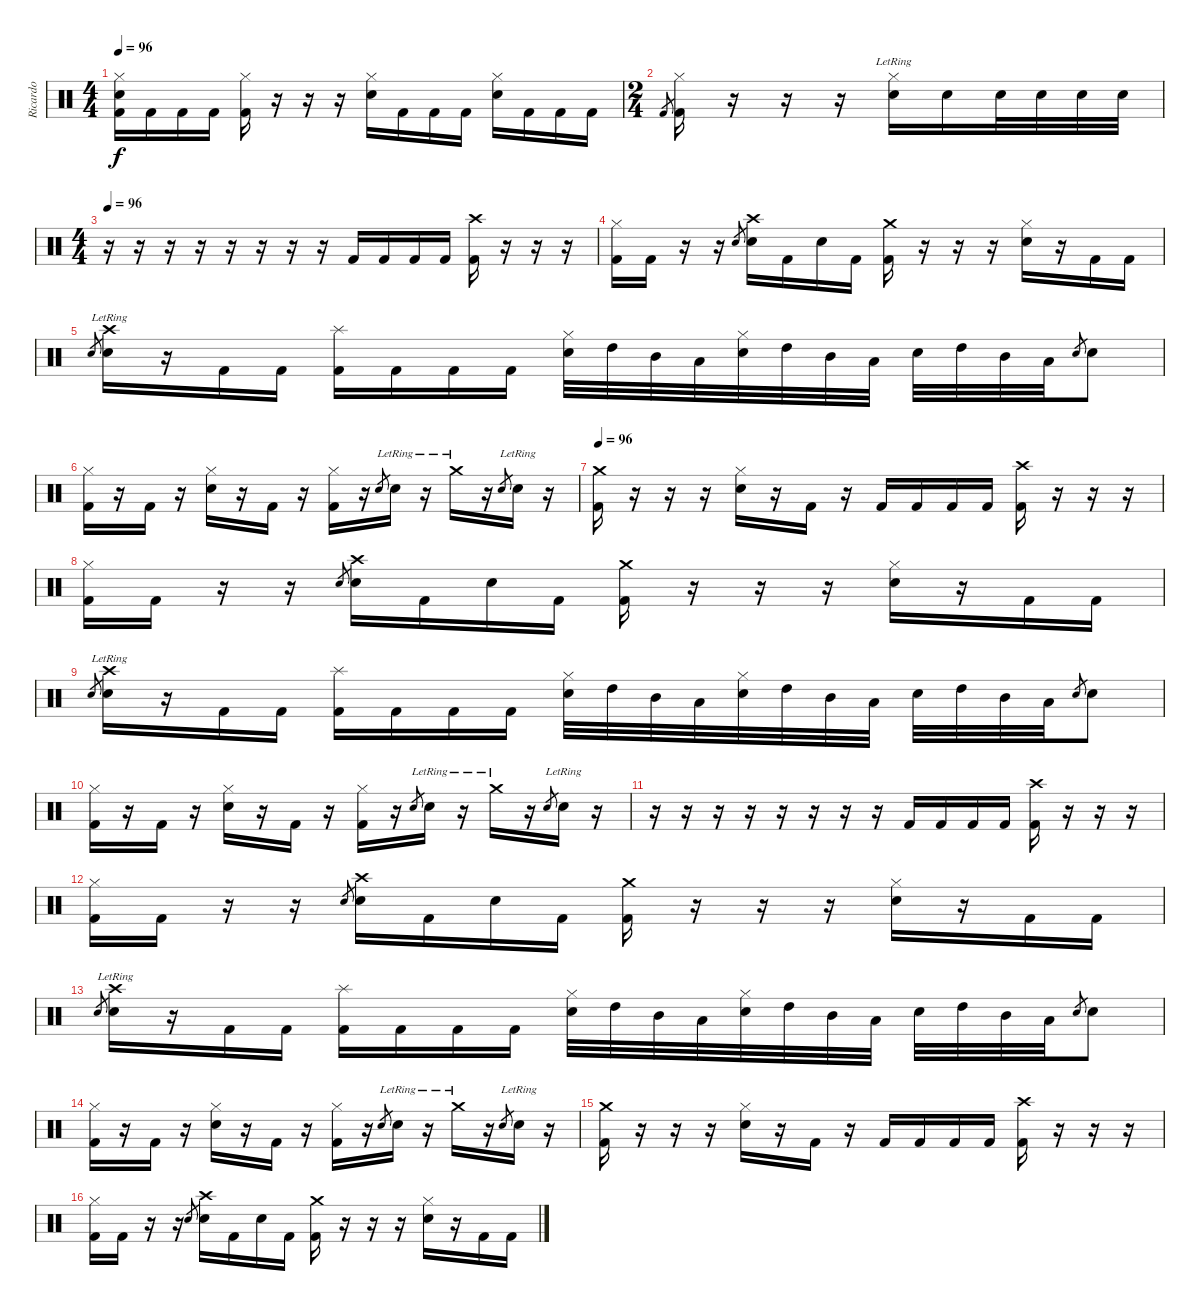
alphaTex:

\track ("Ricardo" "Ricardo") {instrument percussion}
\staff {score}
\articulation defaults
\ts (4 4)
\tempo 96
\clef neutral
\ks c
("Hi-Hat (closed)" "Snare (hit) 2" "Kick (hit) 2").16{dy f} "Kick (hit) 2".16 "Kick (hit) 2".16 "Kick (hit) 2".16 ("Hi-Hat (closed)" "Kick (hit) 2").16 r.16 r.16 r.16 ("Hi-Hat (closed)" "Snare (hit) 2").16 "Kick (hit) 2".16 "Kick (hit) 2".16 "Kick (hit) 2".16 ("Hi-Hat (closed)" "Snare (hit) 2").16 "Kick (hit) 2".16 "Kick (hit) 2".16 "Kick (hit) 2".16 |
\ts (2 4)
"Kick (hit) 2".8{gr} ("Hi-Hat (closed)" "Kick (hit) 2").16 r.16 r.16 r.16 ("Hi-Hat (closed)"{lr} "Snare (hit) 2").16 "Snare (hit) 2".16 "Snare (hit) 2".32 "Snare (hit) 2".32 "Snare (hit) 2".32 "Snare (hit) 2".32 |
\ts (4 4)
\tempo 96
r.16 r.16 r.16 r.16 r.16 r.16 r.16 r.16 "Kick (hit) 2".16 "Kick (hit) 2".16 "Kick (hit) 2".16 "Kick (hit) 2".16 ("Crash high (hit)" "Kick (hit) 2").16 r.16 r.16 r.16 |
("Hi-Hat (closed)" "Kick (hit) 2").16 "Kick (hit) 2".16 r.16 r.16 "Snare (hit) 2".8{gr} ("Crash high (hit)" "Snare (hit) 2").16 "Kick (hit) 2".16 "Snare (hit) 2".16 "Kick (hit) 2".16 ("Crash medium (hit)" "Kick (hit) 2").16 r.16 r.16 r.16 ("Hi-Hat (closed)" "Snare (hit) 2").16 r.16 "Kick (hit) 2".16 "Kick (hit) 2".16 |
"Snare (hit) 2".8{gr} ("Crash high (hit)"{lr} "Snare (hit) 2").16 r.16 "Kick (hit) 2".16 "Kick (hit) 2".16 ("Splash (hit)" "Kick (hit) 2").16 "Kick (hit) 2".16 "Kick (hit) 2".16 "Kick (hit) 2".16 ("Hi-Hat (closed)" "Snare (hit) 2").32 "High Tom (hit)".32 "Mid Tom (hit)".32 "Low Tom (hit)".32 ("Hi-Hat (closed)" "Snare (hit) 2").32 "High Tom (hit)".32 "Mid Tom (hit)".32 "Low Tom (hit)".32 "Snare (hit) 2".32 "High Tom (hit)".32 "Mid Tom (hit)".32 "Low Tom (hit)".32 "Snare (hit) 2".8{gr} "Snare (hit) 2".8 |
("Hi-Hat (closed)" "Kick (hit) 2").16 r.16 "Kick (hit) 2".16 r.16 ("Hi-Hat (closed)" "Snare (hit) 2").16 r.16 "Kick (hit) 2".16 r.16 ("Hi-Hat (closed)" "Kick (hit) 2").16 r.16 "Snare (hit) 2".8{gr} "Snare (hit) 2"{lr}.16 r.16 "Crash medium (hit)"{lr}.16 r.16 "Snare (hit) 2".8{gr} "Snare (hit) 2"{lr}.16 r.16 |
\tempo 96
("Crash medium (hit)" "Kick (hit) 2").16 r.16 r.16 r.16 ("Hi-Hat (closed)" "Snare (hit) 2").16 r.16 "Kick (hit) 2".16 r.16 "Kick (hit) 2".16 "Kick (hit) 2".16 "Kick (hit) 2".16 "Kick (hit) 2".16 ("Crash high (hit)" "Kick (hit) 2").16 r.16 r.16 r.16 |
("Hi-Hat (closed)" "Kick (hit) 2").16 "Kick (hit) 2".16 r.16 r.16 "Snare (hit) 2".8{gr} ("Crash high (hit)" "Snare (hit) 2").16 "Kick (hit) 2".16 "Snare (hit) 2".16 "Kick (hit) 2".16 ("Crash medium (hit)" "Kick (hit) 2").16 r.16 r.16 r.16 ("Hi-Hat (closed)" "Snare (hit) 2").16 r.16 "Kick (hit) 2".16 "Kick (hit) 2".16 |
"Snare (hit) 2".8{gr} ("Crash high (hit)"{lr} "Snare (hit) 2").16 r.16 "Kick (hit) 2".16 "Kick (hit) 2".16 ("Splash (hit)" "Kick (hit) 2").16 "Kick (hit) 2".16 "Kick (hit) 2".16 "Kick (hit) 2".16 ("Hi-Hat (closed)" "Snare (hit) 2").32 "High Tom (hit)".32 "Mid Tom (hit)".32 "Low Tom (hit)".32 ("Hi-Hat (closed)" "Snare (hit) 2").32 "High Tom (hit)".32 "Mid Tom (hit)".32 "Low Tom (hit)".32 "Snare (hit) 2".32 "High Tom (hit)".32 "Mid Tom (hit)".32 "Low Tom (hit)".32 "Snare (hit) 2".8{gr} "Snare (hit) 2".8 |
("Hi-Hat (closed)" "Kick (hit) 2").16 r.16 "Kick (hit) 2".16 r.16 ("Hi-Hat (closed)" "Snare (hit) 2").16 r.16 "Kick (hit) 2".16 r.16 ("Hi-Hat (closed)" "Kick (hit) 2").16 r.16 "Snare (hit) 2".8{gr} "Snare (hit) 2"{lr}.16 r.16 "Crash medium (hit)"{lr}.16 r.16 "Snare (hit) 2".8{gr} "Snare (hit) 2"{lr}.16 r.16 |
r.16 r.16 r.16 r.16 r.16 r.16 r.16 r.16 "Kick (hit) 2".16 "Kick (hit) 2".16 "Kick (hit) 2".16 "Kick (hit) 2".16 ("Crash high (hit)" "Kick (hit) 2").16 r.16 r.16 r.16 |
("Hi-Hat (closed)" "Kick (hit) 2").16 "Kick (hit) 2".16 r.16 r.16 "Snare (hit) 2".8{gr} ("Crash high (hit)" "Snare (hit) 2").16 "Kick (hit) 2".16 "Snare (hit) 2".16 "Kick (hit) 2".16 ("Crash medium (hit)" "Kick (hit) 2").16 r.16 r.16 r.16 ("Hi-Hat (closed)" "Snare (hit) 2").16 r.16 "Kick (hit) 2".16 "Kick (hit) 2".16 |
"Snare (hit) 2".8{gr} ("Crash high (hit)"{lr} "Snare (hit) 2").16 r.16 "Kick (hit) 2".16 "Kick (hit) 2".16 ("Splash (hit)" "Kick (hit) 2").16 "Kick (hit) 2".16 "Kick (hit) 2".16 "Kick (hit) 2".16 ("Hi-Hat (closed)" "Snare (hit) 2").32 "High Tom (hit)".32 "Mid Tom (hit)".32 "Low Tom (hit)".32 ("Hi-Hat (closed)" "Snare (hit) 2").32 "High Tom (hit)".32 "Mid Tom (hit)".32 "Low Tom (hit)".32 "Snare (hit) 2".32 "High Tom (hit)".32 "Mid Tom (hit)".32 "Low Tom (hit)".32 "Snare (hit) 2".8{gr} "Snare (hit) 2".8 |
("Hi-Hat (closed)" "Kick (hit) 2").16 r.16 "Kick (hit) 2".16 r.16 ("Hi-Hat (closed)" "Snare (hit) 2").16 r.16 "Kick (hit) 2".16 r.16 ("Hi-Hat (closed)" "Kick (hit) 2").16 r.16 "Snare (hit) 2".8{gr} "Snare (hit) 2"{lr}.16 r.16 "Crash medium (hit)"{lr}.16 r.16 "Snare (hit) 2".8{gr} "Snare (hit) 2"{lr}.16 r.16 |
("Crash medium (hit)" "Kick (hit) 2").16 r.16 r.16 r.16 ("Hi-Hat (closed)" "Snare (hit) 2").16 r.16 "Kick (hit) 2".16 r.16 "Kick (hit) 2".16 "Kick (hit) 2".16 "Kick (hit) 2".16 "Kick (hit) 2".16 ("Crash high (hit)" "Kick (hit) 2").16 r.16 r.16 r.16 |
("Hi-Hat (closed)" "Kick (hit) 2").16 "Kick (hit) 2".16 r.16 r.16 "Snare (hit) 2".8{gr} ("Crash high (hit)" "Snare (hit) 2").16 "Kick (hit) 2".16 "Snare (hit) 2".16 "Kick (hit) 2".16 ("Crash medium (hit)" "Kick (hit) 2").16 r.16 r.16 r.16 ("Hi-Hat (closed)" "Snare (hit) 2").16 r.16 "Kick (hit) 2".16 "Kick (hit) 2".16
